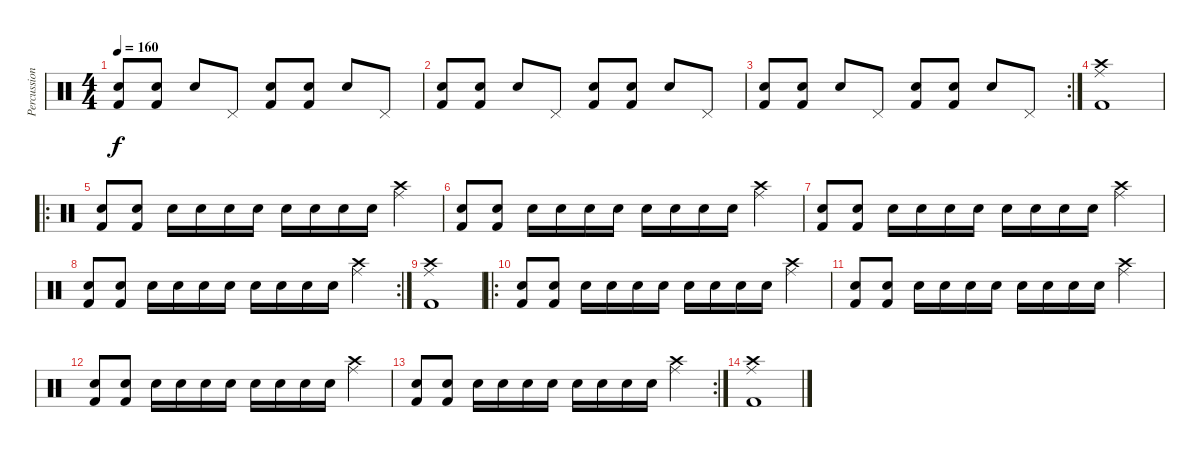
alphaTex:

\track ("Percussion" "Percussion") {instrument percussion}
\staff {score}
\articulation defaults
\ts (4 4)
\tempo 160
\clef neutral
\ks c
("Electric Snare (hit)" "Kick (hit) 2").8{dy f} ("Electric Snare (hit)" "Kick (hit) 2").8 "Electric Snare (hit)".8 "Pedal Hi-Hat (hit)".8 ("Electric Snare (hit)" "Kick (hit) 2").8 ("Electric Snare (hit)" "Kick (hit) 2").8 "Electric Snare (hit)".8 "Pedal Hi-Hat (hit)".8 |
("Electric Snare (hit)" "Kick (hit) 2").8 ("Electric Snare (hit)" "Kick (hit) 2").8 "Electric Snare (hit)".8 "Pedal Hi-Hat (hit)".8 ("Electric Snare (hit)" "Kick (hit) 2").8 ("Electric Snare (hit)" "Kick (hit) 2").8 "Electric Snare (hit)".8 "Pedal Hi-Hat (hit)".8 |
\rc 2
("Electric Snare (hit)" "Kick (hit) 2").8 ("Electric Snare (hit)" "Kick (hit) 2").8 "Electric Snare (hit)".8 "Pedal Hi-Hat (hit)".8 ("Electric Snare (hit)" "Kick (hit) 2").8 ("Electric Snare (hit)" "Kick (hit) 2").8 "Electric Snare (hit)".8 "Pedal Hi-Hat (hit)".8 |
("Ride (middle)" "Crash high (hit)" "Kick (hit) 2").1 |
\ro
("Electric Snare (hit)" "Kick (hit) 2").8 ("Electric Snare (hit)" "Kick (hit) 2").8 "Electric Snare (hit)".16 "Electric Snare (hit)".16 "Electric Snare (hit)".16 "Electric Snare (hit)".16 "Electric Snare (hit)".16 "Electric Snare (hit)".16 "Electric Snare (hit)".16 "Electric Snare (hit)".16 ("Ride (middle)" "Crash high (hit)").4 |
("Electric Snare (hit)" "Kick (hit) 2").8 ("Electric Snare (hit)" "Kick (hit) 2").8 "Electric Snare (hit)".16 "Electric Snare (hit)".16 "Electric Snare (hit)".16 "Electric Snare (hit)".16 "Electric Snare (hit)".16 "Electric Snare (hit)".16 "Electric Snare (hit)".16 "Electric Snare (hit)".16 ("Ride (middle)" "Crash high (hit)").4 |
("Electric Snare (hit)" "Kick (hit) 2").8 ("Electric Snare (hit)" "Kick (hit) 2").8 "Electric Snare (hit)".16 "Electric Snare (hit)".16 "Electric Snare (hit)".16 "Electric Snare (hit)".16 "Electric Snare (hit)".16 "Electric Snare (hit)".16 "Electric Snare (hit)".16 "Electric Snare (hit)".16 ("Ride (middle)" "Crash high (hit)").4 |
\rc 2
("Electric Snare (hit)" "Kick (hit) 2").8 ("Electric Snare (hit)" "Kick (hit) 2").8 "Electric Snare (hit)".16 "Electric Snare (hit)".16 "Electric Snare (hit)".16 "Electric Snare (hit)".16 "Electric Snare (hit)".16 "Electric Snare (hit)".16 "Electric Snare (hit)".16 "Electric Snare (hit)".16 ("Ride (middle)" "Crash high (hit)").4 |
("Kick (hit) 2" "Ride (middle)" "Crash high (hit)").1 |
\ro
("Electric Snare (hit)" "Kick (hit) 2").8 ("Electric Snare (hit)" "Kick (hit) 2").8 "Electric Snare (hit)".16 "Electric Snare (hit)".16 "Electric Snare (hit)".16 "Electric Snare (hit)".16 "Electric Snare (hit)".16 "Electric Snare (hit)".16 "Electric Snare (hit)".16 "Electric Snare (hit)".16 ("Ride (middle)" "Crash high (hit)").4 |
("Electric Snare (hit)" "Kick (hit) 2").8 ("Electric Snare (hit)" "Kick (hit) 2").8 "Electric Snare (hit)".16 "Electric Snare (hit)".16 "Electric Snare (hit)".16 "Electric Snare (hit)".16 "Electric Snare (hit)".16 "Electric Snare (hit)".16 "Electric Snare (hit)".16 "Electric Snare (hit)".16 ("Ride (middle)" "Crash high (hit)").4 |
("Electric Snare (hit)" "Kick (hit) 2").8 ("Electric Snare (hit)" "Kick (hit) 2").8 "Electric Snare (hit)".16 "Electric Snare (hit)".16 "Electric Snare (hit)".16 "Electric Snare (hit)".16 "Electric Snare (hit)".16 "Electric Snare (hit)".16 "Electric Snare (hit)".16 "Electric Snare (hit)".16 ("Ride (middle)" "Crash high (hit)").4 |
\rc 2
("Electric Snare (hit)" "Kick (hit) 2").8 ("Electric Snare (hit)" "Kick (hit) 2").8 "Electric Snare (hit)".16 "Electric Snare (hit)".16 "Electric Snare (hit)".16 "Electric Snare (hit)".16 "Electric Snare (hit)".16 "Electric Snare (hit)".16 "Electric Snare (hit)".16 "Electric Snare (hit)".16 ("Ride (middle)" "Crash high (hit)").4 |
("Ride (middle)" "Crash high (hit)" "Kick (hit) 2").1
